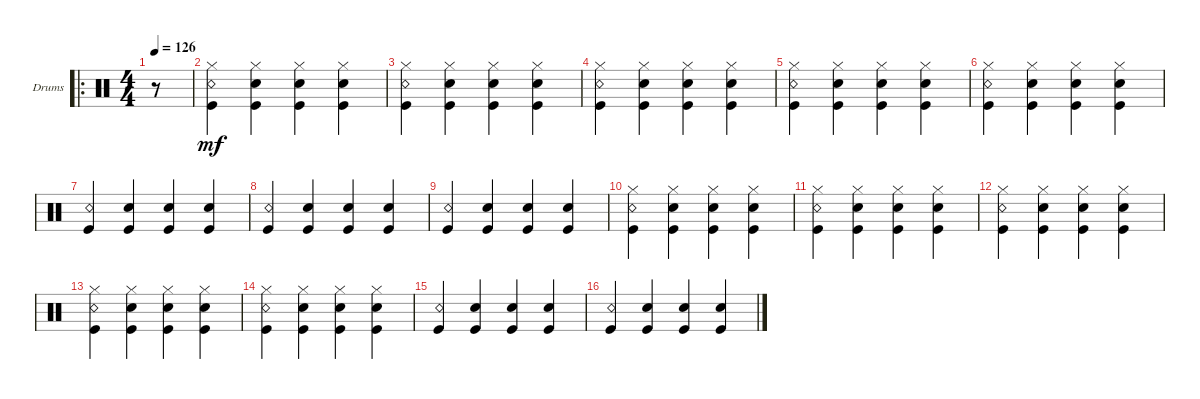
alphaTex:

\defaultSystemsLayout 4
\bracketExtendMode groupsimilarinstruments
\firstSystemTrackNameOrientation horizontal
\otherSystemsTrackNameOrientation horizontal
\track ("Drumkit" "Drums") {instrument percussion}
\staff {score}
\articulation defaults
\ro
\ts (4 4)
\tempo 126
\clef neutral
\ks c
r.8{dy mf} |
("Hi-Hat (closed)" "Kick (hit)" "Snare (rim shot)").4 ("Hi-Hat (closed)" "Kick (hit)" "Snare (hit) 2").4 ("Hi-Hat (closed)" "Kick (hit)" "Snare (hit) 2").4 ("Hi-Hat (closed)" "Kick (hit)" "Snare (hit) 2").4 |
("Hi-Hat (closed)" "Kick (hit)" "Snare (rim shot)").4 ("Hi-Hat (closed)" "Kick (hit)" "Snare (hit) 2").4 ("Hi-Hat (closed)" "Kick (hit)" "Snare (hit) 2").4 ("Hi-Hat (closed)" "Kick (hit)" "Snare (hit) 2").4 |
("Hi-Hat (closed)" "Kick (hit)" "Snare (rim shot)").4 ("Hi-Hat (closed)" "Kick (hit)" "Snare (hit) 2").4 ("Hi-Hat (closed)" "Kick (hit)" "Snare (hit) 2").4 ("Hi-Hat (closed)" "Kick (hit)" "Snare (hit) 2").4 |
("Hi-Hat (closed)" "Kick (hit)" "Snare (rim shot)").4 ("Hi-Hat (closed)" "Kick (hit)" "Snare (hit) 2").4 ("Hi-Hat (closed)" "Kick (hit)" "Snare (hit) 2").4 ("Hi-Hat (closed)" "Kick (hit)" "Snare (hit) 2").4 |
("Hi-Hat (closed)" "Kick (hit)" "Snare (rim shot)").4 ("Hi-Hat (closed)" "Kick (hit)" "Snare (hit) 2").4 ("Hi-Hat (closed)" "Kick (hit)" "Snare (hit) 2").4 ("Hi-Hat (closed)" "Kick (hit)" "Snare (hit) 2").4 |
("Kick (hit)" "Snare (rim shot)").4 ("Kick (hit)" "Snare (hit) 2").4 ("Kick (hit)" "Snare (hit) 2").4 ("Kick (hit)" "Snare (hit) 2").4 |
("Kick (hit)" "Snare (rim shot)").4 ("Kick (hit)" "Snare (hit) 2").4 ("Kick (hit)" "Snare (hit) 2").4 ("Kick (hit)" "Snare (hit) 2").4 |
("Kick (hit)" "Snare (rim shot)").4 ("Kick (hit)" "Snare (hit) 2").4 ("Kick (hit)" "Snare (hit) 2").4 ("Kick (hit)" "Snare (hit) 2").4 |
("Hi-Hat (closed)" "Kick (hit)" "Snare (rim shot)").4 ("Hi-Hat (closed)" "Kick (hit)" "Snare (hit) 2").4 ("Hi-Hat (closed)" "Kick (hit)" "Snare (hit) 2").4 ("Hi-Hat (closed)" "Kick (hit)" "Snare (hit) 2").4 |
("Hi-Hat (closed)" "Kick (hit)" "Snare (rim shot)").4 ("Hi-Hat (closed)" "Kick (hit)" "Snare (hit) 2").4 ("Hi-Hat (closed)" "Kick (hit)" "Snare (hit) 2").4 ("Hi-Hat (closed)" "Kick (hit)" "Snare (hit) 2").4 |
("Hi-Hat (closed)" "Kick (hit)" "Snare (rim shot)").4 ("Hi-Hat (closed)" "Kick (hit)" "Snare (hit) 2").4 ("Hi-Hat (closed)" "Kick (hit)" "Snare (hit) 2").4 ("Hi-Hat (closed)" "Kick (hit)" "Snare (hit) 2").4 |
("Hi-Hat (closed)" "Kick (hit)" "Snare (rim shot)").4 ("Hi-Hat (closed)" "Kick (hit)" "Snare (hit) 2").4 ("Hi-Hat (closed)" "Kick (hit)" "Snare (hit) 2").4 ("Hi-Hat (closed)" "Kick (hit)" "Snare (hit) 2").4 |
("Hi-Hat (closed)" "Kick (hit)" "Snare (rim shot)").4 ("Hi-Hat (closed)" "Kick (hit)" "Snare (hit) 2").4 ("Hi-Hat (closed)" "Kick (hit)" "Snare (hit) 2").4 ("Hi-Hat (closed)" "Kick (hit)" "Snare (hit) 2").4 |
("Kick (hit)" "Snare (rim shot)").4 ("Kick (hit)" "Snare (hit) 2").4 ("Kick (hit)" "Snare (hit) 2").4 ("Kick (hit)" "Snare (hit) 2").4 |
("Kick (hit)" "Snare (rim shot)").4 ("Kick (hit)" "Snare (hit) 2").4 ("Kick (hit)" "Snare (hit) 2").4 ("Kick (hit)" "Snare (hit) 2").4
